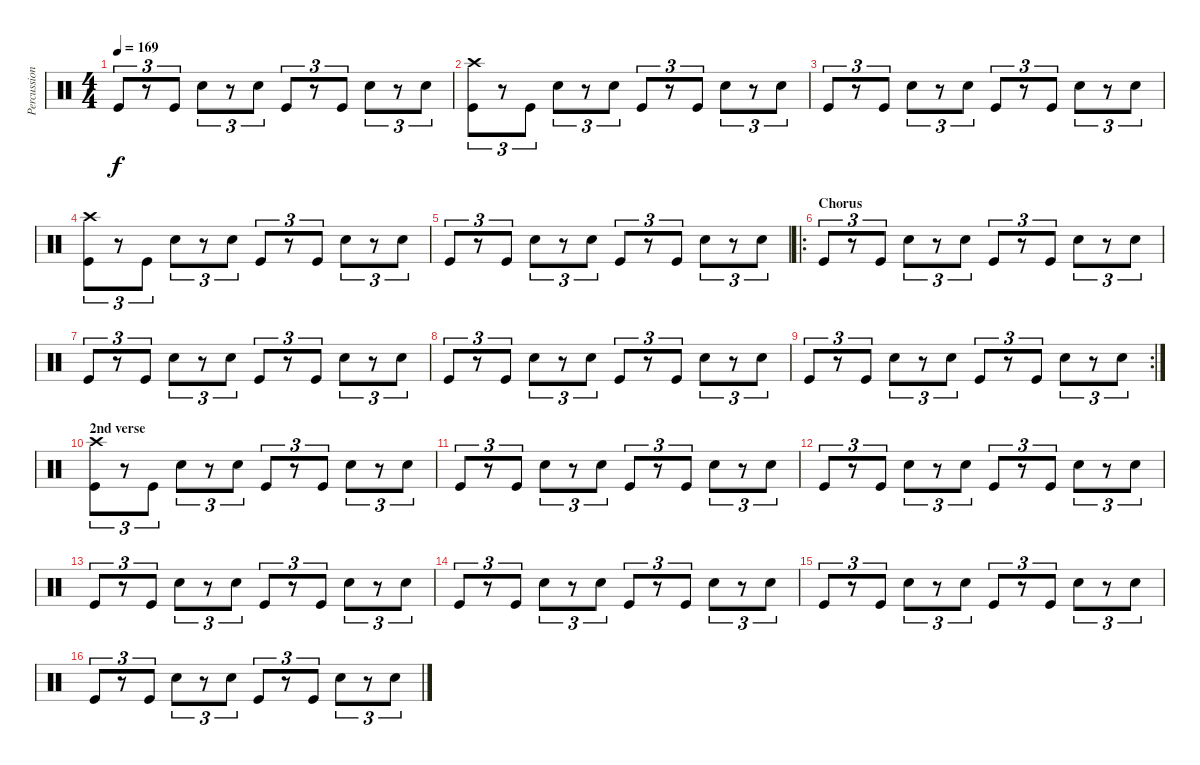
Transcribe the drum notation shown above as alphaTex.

\track ("Percussion" "Percussion") {instrument percussion}
\staff {score}
\articulation defaults
\ts (4 4)
\tempo 169
\clef neutral
\ks c "Kick (hit)".8{tu (3 2) dy f}
r.8{tu (3 2)} "Kick (hit)".8{tu (3 2)} "Snare (hit) 2".8{tu (3 2)} r.8{tu (3 2)} "Snare (hit) 2".8{tu (3 2)} "Kick (hit)".8{tu (3 2)} r.8{tu (3 2)} "Kick (hit)".8{tu (3 2)} "Snare (hit) 2".8{tu (3 2)} r.8{tu (3 2)} "Snare (hit) 2".8{tu (3 2)} |
("Crash high (hit)" "Kick (hit)").8{tu (3 2)} r.8{tu (3 2)} "Kick (hit)".8{tu (3 2)} "Snare (hit) 2".8{tu (3 2)} r.8{tu (3 2)} "Snare (hit) 2".8{tu (3 2)} "Kick (hit)".8{tu (3 2)} r.8{tu (3 2)} "Kick (hit)".8{tu (3 2)} "Snare (hit) 2".8{tu (3 2)} r.8{tu (3 2)} "Snare (hit) 2".8{tu (3 2)} |
"Kick (hit)".8{tu (3 2)} r.8{tu (3 2)} "Kick (hit)".8{tu (3 2)} "Snare (hit) 2".8{tu (3 2)} r.8{tu (3 2)} "Snare (hit) 2".8{tu (3 2)} "Kick (hit)".8{tu (3 2)} r.8{tu (3 2)} "Kick (hit)".8{tu (3 2)} "Snare (hit) 2".8{tu (3 2)} r.8{tu (3 2)} "Snare (hit) 2".8{tu (3 2)} |
("Crash high (hit)" "Kick (hit)").8{tu (3 2)} r.8{tu (3 2)} "Kick (hit)".8{tu (3 2)} "Snare (hit) 2".8{tu (3 2)} r.8{tu (3 2)} "Snare (hit) 2".8{tu (3 2)} "Kick (hit)".8{tu (3 2)} r.8{tu (3 2)} "Kick (hit)".8{tu (3 2)} "Snare (hit) 2".8{tu (3 2)} r.8{tu (3 2)} "Snare (hit) 2".8{tu (3 2)} |
"Kick (hit)".8{tu (3 2)} r.8{tu (3 2)} "Kick (hit)".8{tu (3 2)} "Snare (hit) 2".8{tu (3 2)} r.8{tu (3 2)} "Snare (hit) 2".8{tu (3 2)} "Kick (hit)".8{tu (3 2)} r.8{tu (3 2)} "Kick (hit)".8{tu (3 2)} "Snare (hit) 2".8{tu (3 2)} r.8{tu (3 2)} "Snare (hit) 2".8{tu (3 2)} |
\ro
\section ("" "Chorus")
"Kick (hit)".8{tu (3 2)} r.8{tu (3 2)} "Kick (hit)".8{tu (3 2)} "Snare (hit) 2".8{tu (3 2)} r.8{tu (3 2)} "Snare (hit) 2".8{tu (3 2)} "Kick (hit)".8{tu (3 2)} r.8{tu (3 2)} "Kick (hit)".8{tu (3 2)} "Snare (hit) 2".8{tu (3 2)} r.8{tu (3 2)} "Snare (hit) 2".8{tu (3 2)} |
"Kick (hit)".8{tu (3 2)} r.8{tu (3 2)} "Kick (hit)".8{tu (3 2)} "Snare (hit) 2".8{tu (3 2)} r.8{tu (3 2)} "Snare (hit) 2".8{tu (3 2)} "Kick (hit)".8{tu (3 2)} r.8{tu (3 2)} "Kick (hit)".8{tu (3 2)} "Snare (hit) 2".8{tu (3 2)} r.8{tu (3 2)} "Snare (hit) 2".8{tu (3 2)} |
"Kick (hit)".8{tu (3 2)} r.8{tu (3 2)} "Kick (hit)".8{tu (3 2)} "Snare (hit) 2".8{tu (3 2)} r.8{tu (3 2)} "Snare (hit) 2".8{tu (3 2)} "Kick (hit)".8{tu (3 2)} r.8{tu (3 2)} "Kick (hit)".8{tu (3 2)} "Snare (hit) 2".8{tu (3 2)} r.8{tu (3 2)} "Snare (hit) 2".8{tu (3 2)} |
\rc 2 "Kick (hit)".8{tu (3 2)}
r.8{tu (3 2)} "Kick (hit)".8{tu (3 2)} "Snare (hit) 2".8{tu (3 2)} r.8{tu (3 2)} "Snare (hit) 2".8{tu (3 2)} "Kick (hit)".8{tu (3 2)} r.8{tu (3 2)} "Kick (hit)".8{tu (3 2)} "Snare (hit) 2".8{tu (3 2)} r.8{tu (3 2)} "Snare (hit) 2".8{tu (3 2)} |
\section ("" "2nd verse")
("Crash high (hit)" "Kick (hit)").8{tu (3 2)} r.8{tu (3 2)} "Kick (hit)".8{tu (3 2)} "Snare (hit) 2".8{tu (3 2)} r.8{tu (3 2)} "Snare (hit) 2".8{tu (3 2)} "Kick (hit)".8{tu (3 2)} r.8{tu (3 2)} "Kick (hit)".8{tu (3 2)} "Snare (hit) 2".8{tu (3 2)} r.8{tu (3 2)} "Snare (hit) 2".8{tu (3 2)} |
"Kick (hit)".8{tu (3 2)} r.8{tu (3 2)} "Kick (hit)".8{tu (3 2)} "Snare (hit) 2".8{tu (3 2)} r.8{tu (3 2)} "Snare (hit) 2".8{tu (3 2)} "Kick (hit)".8{tu (3 2)} r.8{tu (3 2)} "Kick (hit)".8{tu (3 2)} "Snare (hit) 2".8{tu (3 2)} r.8{tu (3 2)} "Snare (hit) 2".8{tu (3 2)} |
"Kick (hit)".8{tu (3 2)} r.8{tu (3 2)} "Kick (hit)".8{tu (3 2)} "Snare (hit) 2".8{tu (3 2)} r.8{tu (3 2)} "Snare (hit) 2".8{tu (3 2)} "Kick (hit)".8{tu (3 2)} r.8{tu (3 2)} "Kick (hit)".8{tu (3 2)} "Snare (hit) 2".8{tu (3 2)} r.8{tu (3 2)} "Snare (hit) 2".8{tu (3 2)} |
"Kick (hit)".8{tu (3 2)} r.8{tu (3 2)} "Kick (hit)".8{tu (3 2)} "Snare (hit) 2".8{tu (3 2)} r.8{tu (3 2)} "Snare (hit) 2".8{tu (3 2)} "Kick (hit)".8{tu (3 2)} r.8{tu (3 2)} "Kick (hit)".8{tu (3 2)} "Snare (hit) 2".8{tu (3 2)} r.8{tu (3 2)} "Snare (hit) 2".8{tu (3 2)} |
"Kick (hit)".8{tu (3 2)} r.8{tu (3 2)} "Kick (hit)".8{tu (3 2)} "Snare (hit) 2".8{tu (3 2)} r.8{tu (3 2)} "Snare (hit) 2".8{tu (3 2)} "Kick (hit)".8{tu (3 2)} r.8{tu (3 2)} "Kick (hit)".8{tu (3 2)} "Snare (hit) 2".8{tu (3 2)} r.8{tu (3 2)} "Snare (hit) 2".8{tu (3 2)} |
"Kick (hit)".8{tu (3 2)} r.8{tu (3 2)} "Kick (hit)".8{tu (3 2)} "Snare (hit) 2".8{tu (3 2)} r.8{tu (3 2)} "Snare (hit) 2".8{tu (3 2)} "Kick (hit)".8{tu (3 2)} r.8{tu (3 2)} "Kick (hit)".8{tu (3 2)} "Snare (hit) 2".8{tu (3 2)} r.8{tu (3 2)} "Snare (hit) 2".8{tu (3 2)} |
"Kick (hit)".8{tu (3 2)} r.8{tu (3 2)} "Kick (hit)".8{tu (3 2)} "Snare (hit) 2".8{tu (3 2)} r.8{tu (3 2)} "Snare (hit) 2".8{tu (3 2)} "Kick (hit)".8{tu (3 2)} r.8{tu (3 2)} "Kick (hit)".8{tu (3 2)} "Snare (hit) 2".8{tu (3 2)} r.8{tu (3 2)} "Snare (hit) 2".8{tu (3 2)}
